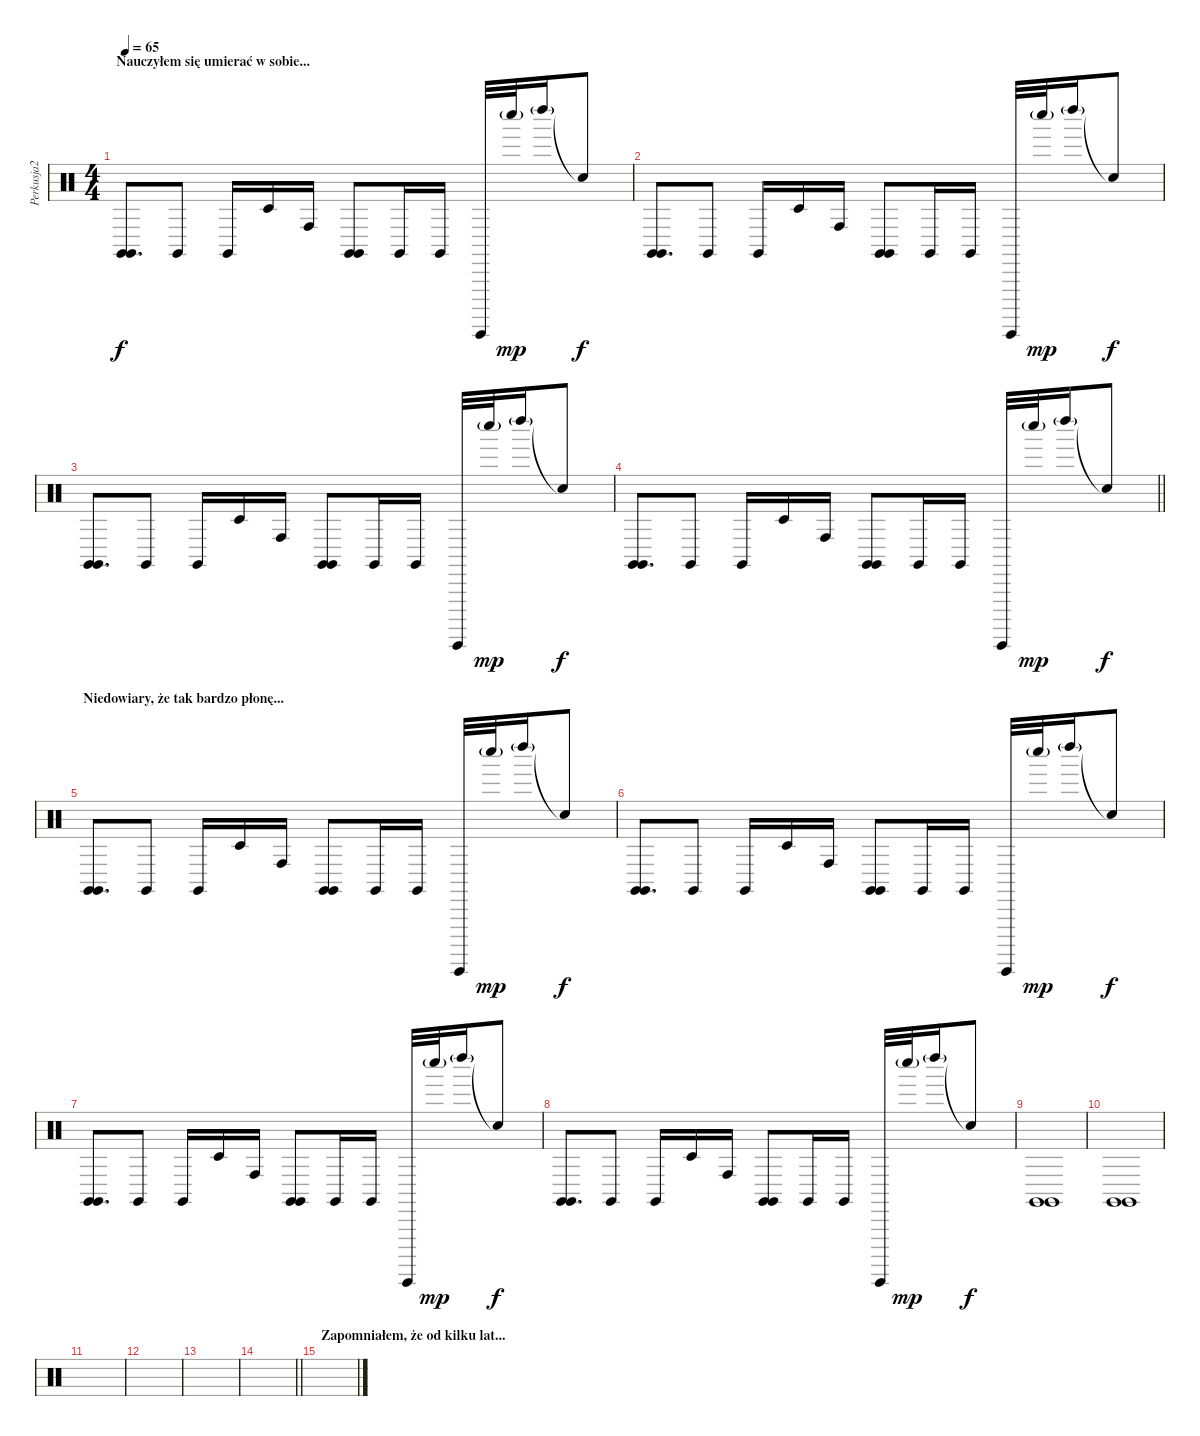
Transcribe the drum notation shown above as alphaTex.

\track ("Perkusja2" "Perkusja2") {instrument percussion}
\staff {score}
\articulation defaults
\ts (4 4)
\section ("" "Nauczyłem się umierać w sobie...")
\tempo 65
\clef neutral
\ks c
("Claves (hit)" "Claves (hit)").8{d dy f} "Claves (hit)".8 "Claves (hit)".16 "Timbale low (hit)".16 "Conga high (hit)".16 ("Claves (hit)" "Claves (hit)").8 "Claves (hit)".16 "Claves (hit)".16 "Guiro (hit)".32 "Whistle low (hit)"{g}.32{dy mp} "Left Maraca (hit)"{g}.16 "Snare (hit)"{t}.8{dy f} |
("Claves (hit)" "Claves (hit)").8{d} "Claves (hit)".8 "Claves (hit)".16 "Timbale low (hit)".16 "Conga high (hit)".16 ("Claves (hit)" "Claves (hit)").8 "Claves (hit)".16 "Claves (hit)".16 "Guiro (hit)".32 "Whistle low (hit)"{g}.32{dy mp} "Left Maraca (hit)"{g}.16 "Snare (hit)"{t}.8{dy f} |
("Claves (hit)" "Claves (hit)").8{d} "Claves (hit)".8 "Claves (hit)".16 "Timbale low (hit)".16 "Conga high (hit)".16 ("Claves (hit)" "Claves (hit)").8 "Claves (hit)".16 "Claves (hit)".16 "Guiro (hit)".32 "Whistle low (hit)"{g}.32{dy mp} "Left Maraca (hit)"{g}.16 "Snare (hit)"{t}.8{dy f} |
\barLineRight lightlight
("Claves (hit)" "Claves (hit)").8{d} "Claves (hit)".8 "Claves (hit)".16 "Timbale low (hit)".16 "Conga high (hit)".16 ("Claves (hit)" "Claves (hit)").8 "Claves (hit)".16 "Claves (hit)".16 "Guiro (hit)".32 "Whistle low (hit)"{g}.32{dy mp} "Left Maraca (hit)"{g}.16 "Snare (hit)"{t}.8{dy f} |
\section ("" "Niedowiary, że tak bardzo płonę...")
("Claves (hit)" "Claves (hit)").8{d} "Claves (hit)".8 "Claves (hit)".16 "Timbale low (hit)".16 "Conga high (hit)".16 ("Claves (hit)" "Claves (hit)").8 "Claves (hit)".16 "Claves (hit)".16 "Guiro (hit)".32 "Whistle low (hit)"{g}.32{dy mp} "Left Maraca (hit)"{g}.16 "Snare (hit)"{t}.8{dy f} |
("Claves (hit)" "Claves (hit)").8{d} "Claves (hit)".8 "Claves (hit)".16 "Timbale low (hit)".16 "Conga high (hit)".16 ("Claves (hit)" "Claves (hit)").8 "Claves (hit)".16 "Claves (hit)".16 "Guiro (hit)".32 "Whistle low (hit)"{g}.32{dy mp} "Left Maraca (hit)"{g}.16 "Snare (hit)"{t}.8{dy f} |
("Claves (hit)" "Claves (hit)").8{d} "Claves (hit)".8 "Claves (hit)".16 "Timbale low (hit)".16 "Conga high (hit)".16 ("Claves (hit)" "Claves (hit)").8 "Claves (hit)".16 "Claves (hit)".16 "Guiro (hit)".32 "Whistle low (hit)"{g}.32{dy mp} "Left Maraca (hit)"{g}.16 "Snare (hit)"{t}.8{dy f} |
("Claves (hit)" "Claves (hit)").8{d} "Claves (hit)".8 "Claves (hit)".16 "Timbale low (hit)".16 "Conga high (hit)".16 ("Claves (hit)" "Claves (hit)").8 "Claves (hit)".16 "Claves (hit)".16 "Guiro (hit)".32 "Whistle low (hit)"{g}.32{dy mp} "Left Maraca (hit)"{g}.16 "Snare (hit)"{t}.8{dy f} |
("Claves (hit)" "Claves (hit)").1 |
("Claves (hit)" "Claves (hit)").1 |
|
|
|
\barLineRight lightlight
|
\section ("" "Zapomniałem, że od kilku lat...")
